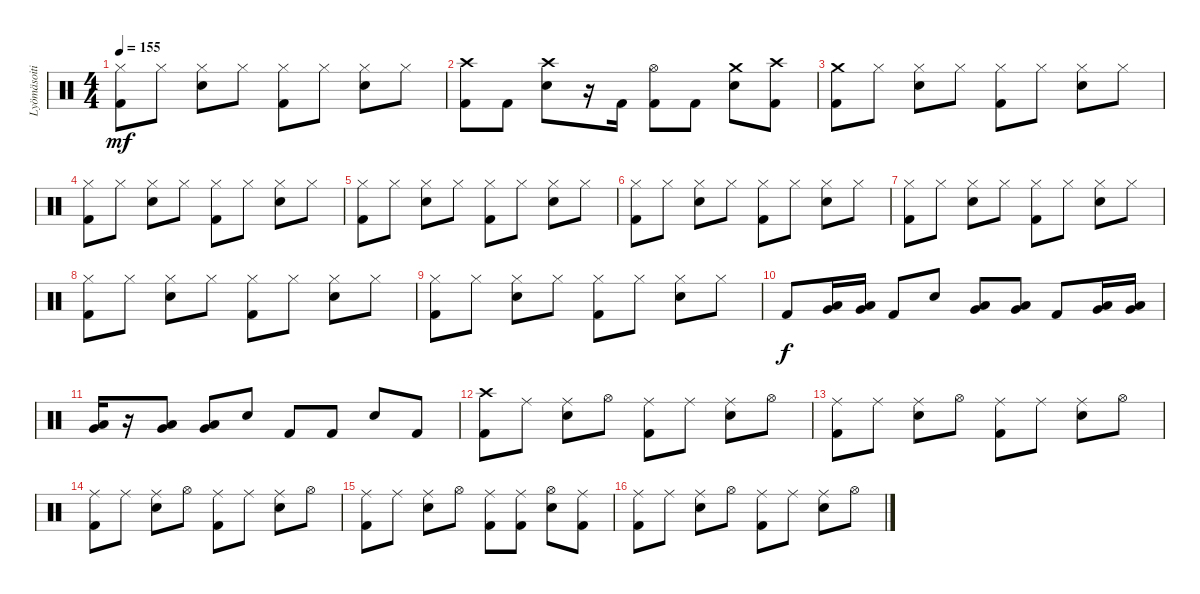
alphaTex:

\track ("Lyömäsoitin" "Lyömäsoiti") {instrument percussion}
\staff {score}
\articulation defaults
\ts (4 4)
\tempo 155
\clef neutral
\ks c
("Hi-Hat (closed)" "Kick (hit) 2").8{dy mf} "Hi-Hat (closed)".8 ("Hi-Hat (closed)" "Snare (hit) 2").8 "Hi-Hat (closed)".8 ("Hi-Hat (closed)" "Kick (hit) 2").8 "Hi-Hat (closed)".8 ("Hi-Hat (closed)" "Snare (hit) 2").8 "Hi-Hat (closed)".8 |
("Crash high (hit)" "Kick (hit) 2").8 "Kick (hit) 2".8 ("Crash high (hit)" "Snare (hit) 2").8 r.16 "Kick (hit) 2".16 ("Hi-Hat (open)" "Kick (hit) 2").8 "Kick (hit) 2".8 ("Crash medium (hit)" "Snare (hit) 2").8 ("Crash high (hit)" "Kick (hit) 2").8 |
("Crash medium (hit)" "Kick (hit) 2").8 "Hi-Hat (closed)".8 ("Hi-Hat (closed)" "Snare (hit) 2").8 "Hi-Hat (closed)".8 ("Hi-Hat (closed)" "Kick (hit) 2").8 "Hi-Hat (closed)".8 ("Hi-Hat (closed)" "Snare (hit) 2").8 "Hi-Hat (closed)".8 |
("Hi-Hat (closed)" "Kick (hit) 2").8 "Hi-Hat (closed)".8 ("Hi-Hat (closed)" "Snare (hit) 2").8 "Hi-Hat (closed)".8 ("Hi-Hat (closed)" "Kick (hit) 2").8 "Hi-Hat (closed)".8 ("Hi-Hat (closed)" "Snare (hit) 2").8 "Hi-Hat (closed)".8 |
("Hi-Hat (closed)" "Kick (hit) 2").8 "Hi-Hat (closed)".8 ("Hi-Hat (closed)" "Snare (hit) 2").8 "Hi-Hat (closed)".8 ("Hi-Hat (closed)" "Kick (hit) 2").8 "Hi-Hat (closed)".8 ("Hi-Hat (closed)" "Snare (hit) 2").8 "Hi-Hat (closed)".8 |
("Hi-Hat (closed)" "Kick (hit) 2").8 "Hi-Hat (closed)".8 ("Hi-Hat (closed)" "Snare (hit) 2").8 "Hi-Hat (closed)".8 ("Hi-Hat (closed)" "Kick (hit) 2").8 "Hi-Hat (closed)".8 ("Hi-Hat (closed)" "Snare (hit) 2").8 "Hi-Hat (closed)".8 |
("Hi-Hat (closed)" "Kick (hit) 2").8 "Hi-Hat (closed)".8 ("Hi-Hat (closed)" "Snare (hit) 2").8 "Hi-Hat (closed)".8 ("Hi-Hat (closed)" "Kick (hit) 2").8 "Hi-Hat (closed)".8 ("Hi-Hat (closed)" "Snare (hit) 2").8 "Hi-Hat (closed)".8 |
("Hi-Hat (closed)" "Kick (hit) 2").8 "Hi-Hat (closed)".8 ("Hi-Hat (closed)" "Snare (hit) 2").8 "Hi-Hat (closed)".8 ("Hi-Hat (closed)" "Kick (hit) 2").8 "Hi-Hat (closed)".8 ("Hi-Hat (closed)" "Snare (hit) 2").8 "Hi-Hat (closed)".8 |
("Hi-Hat (closed)" "Kick (hit) 2").8 "Hi-Hat (closed)".8 ("Hi-Hat (closed)" "Snare (hit) 2").8 "Hi-Hat (closed)".8 ("Hi-Hat (closed)" "Kick (hit) 2").8 "Hi-Hat (closed)".8 ("Hi-Hat (closed)" "Snare (hit) 2").8 "Hi-Hat (closed)".8 |
"Kick (hit) 2".8{dy f} ("Low Tom (hit)" "Very Low Tom (hit)").16 ("Very Low Tom (hit)" "Low Floor Tom (hit)").16 "Kick (hit) 2".8 "Snare (hit) 2".8 ("Low Tom (hit)" "Very Low Tom (hit)").8 ("Low Tom (hit)" "Very Low Tom (hit)").8 "Kick (hit) 2".8 ("Low Tom (hit)" "Very Low Tom (hit)").16 ("Very Low Tom (hit)" "Low Floor Tom (hit)").16 |
("Low Tom (hit)" "Very Low Tom (hit)").16 r.16 ("Low Tom (hit)" "Very Low Tom (hit)").8 ("Very Low Tom (hit)" "Low Floor Tom (hit)").8 "Snare (hit) 2".8 "Kick (hit) 2".8 "Kick (hit) 2".8 "Snare (hit) 2".8 "Kick (hit) 2".8 |
("Crash high (hit)" "Kick (hit) 2").8 "Ride (middle)".8 ("Ride (middle)" "Snare (hit) 2").8 "Hi-Hat (open)".8 ("Ride (middle)" "Kick (hit) 2").8 "Ride (middle)".8 ("Ride (middle)" "Snare (hit) 2").8 "Hi-Hat (open)".8 |
("Ride (middle)" "Kick (hit) 2").8 "Ride (middle)".8 ("Ride (middle)" "Snare (hit) 2").8 "Hi-Hat (open)".8 ("Ride (middle)" "Kick (hit) 2").8 "Ride (middle)".8 ("Ride (middle)" "Snare (hit) 2").8 "Hi-Hat (open)".8 |
("Ride (middle)" "Kick (hit) 2").8 "Ride (middle)".8 ("Ride (middle)" "Snare (hit) 2").8 "Hi-Hat (open)".8 ("Ride (middle)" "Kick (hit) 2").8 "Ride (middle)".8 ("Ride (middle)" "Snare (hit) 2").8 "Hi-Hat (open)".8 |
("Ride (middle)" "Kick (hit) 2").8 "Ride (middle)".8 ("Ride (middle)" "Snare (hit) 2").8 "Hi-Hat (open)".8 ("Ride (middle)" "Kick (hit) 2").8 ("Ride (middle)" "Kick (hit) 2").8 ("Hi-Hat (open)" "Snare (hit) 2").8 ("Ride (middle)" "Kick (hit) 2").8 |
("Ride (middle)" "Kick (hit) 2").8 "Ride (middle)".8 ("Ride (middle)" "Snare (hit) 2").8 "Hi-Hat (open)".8 ("Ride (middle)" "Kick (hit) 2").8 "Ride (middle)".8 ("Ride (middle)" "Snare (hit) 2").8 "Hi-Hat (open)".8
